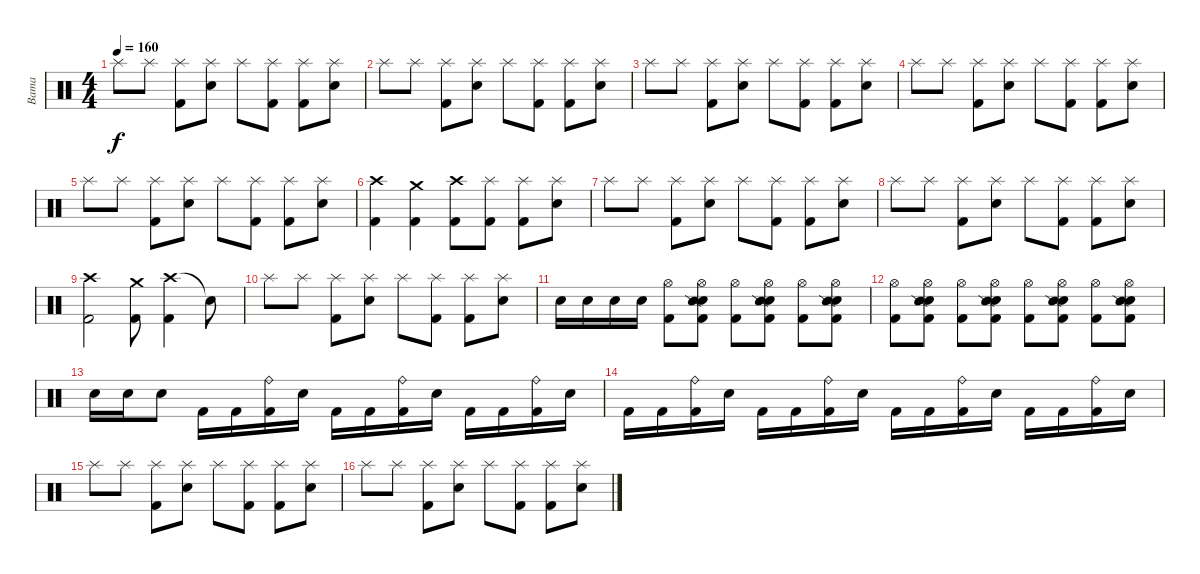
\track ("Bama" "Bama") {instrument percussion}
\staff {score}
\articulation defaults
\ts (4 4)
\tempo 160
\clef neutral
\ks c "Splash (hit)".8{dy f} "Splash (hit)".8
("Splash (hit)" "Kick (hit) 2").8 ("Splash (hit)" "Electric Snare (hit)").8 "Splash (hit)".8 ("Splash (hit)" "Kick (hit) 2").8 ("Splash (hit)" "Kick (hit) 2").8 ("Splash (hit)" "Electric Snare (hit)").8 |
"Splash (hit)".8 "Splash (hit)".8 ("Splash (hit)" "Kick (hit) 2").8 ("Splash (hit)" "Electric Snare (hit)").8 "Splash (hit)".8 ("Splash (hit)" "Kick (hit) 2").8 ("Splash (hit)" "Kick (hit) 2").8 ("Splash (hit)" "Electric Snare (hit)").8 |
"Splash (hit)".8 "Splash (hit)".8 ("Splash (hit)" "Kick (hit) 2").8 ("Splash (hit)" "Electric Snare (hit)").8 "Splash (hit)".8 ("Splash (hit)" "Kick (hit) 2").8 ("Splash (hit)" "Kick (hit) 2").8 ("Splash (hit)" "Electric Snare (hit)").8 |
"Splash (hit)".8 "Splash (hit)".8 ("Splash (hit)" "Kick (hit) 2").8 ("Splash (hit)" "Electric Snare (hit)").8 "Splash (hit)".8 ("Splash (hit)" "Kick (hit) 2").8 ("Splash (hit)" "Kick (hit) 2").8 ("Splash (hit)" "Electric Snare (hit)").8 |
"Splash (hit)".8 "Splash (hit)".8 ("Splash (hit)" "Kick (hit) 2").8 ("Splash (hit)" "Electric Snare (hit)").8 "Splash (hit)".8 ("Splash (hit)" "Kick (hit) 2").8 ("Splash (hit)" "Kick (hit) 2").8 ("Splash (hit)" "Electric Snare (hit)").8 |
("Crash high (hit)" "Kick (hit) 2").4 ("Crash medium (hit)" "Kick (hit) 2").4 ("Crash high (hit)" "Kick (hit) 2").8 ("Splash (hit)" "Kick (hit) 2").8 ("Splash (hit)" "Kick (hit) 2").8 ("Splash (hit)" "Electric Snare (hit)").8 |
"Splash (hit)".8 "Splash (hit)".8 ("Splash (hit)" "Kick (hit) 2").8 ("Splash (hit)" "Electric Snare (hit)").8 "Splash (hit)".8 ("Splash (hit)" "Kick (hit) 2").8 ("Splash (hit)" "Kick (hit) 2").8 ("Splash (hit)" "Electric Snare (hit)").8 |
"Splash (hit)".8 "Splash (hit)".8 ("Splash (hit)" "Kick (hit) 2").8 ("Splash (hit)" "Electric Snare (hit)").8 "Splash (hit)".8 ("Splash (hit)" "Kick (hit) 2").8 ("Splash (hit)" "Kick (hit) 2").8 ("Splash (hit)" "Electric Snare (hit)").8 |
("Crash high (hit)" "Kick (hit) 2").2 ("Crash medium (hit)" "Kick (hit) 2").8 ("Crash high (hit)" "Kick (hit) 2").4 "Snare (hit)"{t}.8 |
"Splash (hit)".8 "Splash (hit)".8 ("Splash (hit)" "Kick (hit) 2").8 ("Splash (hit)" "Electric Snare (hit)").8 "Splash (hit)".8 ("Splash (hit)" "Kick (hit) 2").8 ("Splash (hit)" "Kick (hit) 2").8 ("Splash (hit)" "Electric Snare (hit)").8 |
"Electric Snare (hit)".16 "Electric Snare (hit)".16 "Electric Snare (hit)".16 "Electric Snare (hit)".16 ("Hi-Hat (open)" "Kick (hit) 2").8 ("Hi-Hat (open)" "Electric Snare (hit)" "Snare (side stick) 2" "Kick (hit) 2").8 ("Hi-Hat (open)" "Kick (hit) 2").8 ("Hi-Hat (open)" "Electric Snare (hit)" "Snare (side stick) 2" "Kick (hit) 2").8 ("Hi-Hat (open)" "Kick (hit) 2").8 ("Hi-Hat (open)" "Electric Snare (hit)" "Snare (side stick) 2" "Kick (hit) 2").8 |
("Hi-Hat (open)" "Kick (hit) 2").8 ("Hi-Hat (open)" "Electric Snare (hit)" "Snare (side stick) 2" "Kick (hit) 2").8 ("Hi-Hat (open)" "Kick (hit) 2").8 ("Hi-Hat (open)" "Electric Snare (hit)" "Snare (side stick) 2" "Kick (hit) 2").8 ("Hi-Hat (open)" "Kick (hit) 2").8 ("Hi-Hat (open)" "Electric Snare (hit)" "Snare (side stick) 2" "Kick (hit) 2").8 ("Hi-Hat (open)" "Kick (hit) 2").8 ("Hi-Hat (open)" "Electric Snare (hit)" "Snare (side stick) 2" "Kick (hit) 2").8 |
"Electric Snare (hit)".16 "Electric Snare (hit)".16 "Electric Snare (hit)".8 "Kick (hit) 2".16 "Kick (hit) 2".16 ("Ride (bell)" "Kick (hit) 2").16 "Electric Snare (hit)".16 "Kick (hit) 2".16 "Kick (hit) 2".16 ("Ride (bell)" "Kick (hit) 2").16 "Electric Snare (hit)".16 "Kick (hit) 2".16 "Kick (hit) 2".16 ("Ride (bell)" "Kick (hit) 2").16 "Electric Snare (hit)".16 |
"Kick (hit) 2".16 "Kick (hit) 2".16 ("Ride (bell)" "Kick (hit) 2").16 "Electric Snare (hit)".16 "Kick (hit) 2".16 "Kick (hit) 2".16 ("Ride (bell)" "Kick (hit) 2").16 "Electric Snare (hit)".16 "Kick (hit) 2".16 "Kick (hit) 2".16 ("Ride (bell)" "Kick (hit) 2").16 "Electric Snare (hit)".16 "Kick (hit) 2".16 "Kick (hit) 2".16 ("Ride (bell)" "Kick (hit) 2").16 "Electric Snare (hit)".16 |
"Splash (hit)".8 "Splash (hit)".8 ("Splash (hit)" "Kick (hit) 2").8 ("Splash (hit)" "Electric Snare (hit)").8 "Splash (hit)".8 ("Splash (hit)" "Kick (hit) 2").8 ("Splash (hit)" "Kick (hit) 2").8 ("Splash (hit)" "Electric Snare (hit)").8 |
"Splash (hit)".8 "Splash (hit)".8 ("Splash (hit)" "Kick (hit) 2").8 ("Splash (hit)" "Electric Snare (hit)").8 "Splash (hit)".8 ("Splash (hit)" "Kick (hit) 2").8 ("Splash (hit)" "Kick (hit) 2").8 ("Splash (hit)" "Electric Snare (hit)").8
